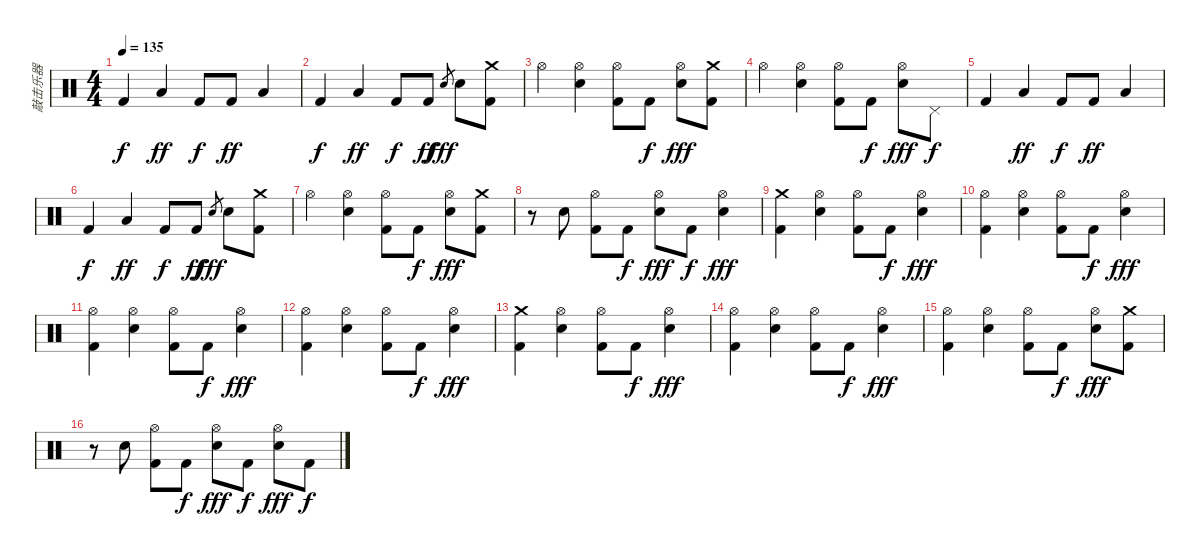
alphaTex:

\track ("敲击乐器" "敲击乐器") {instrument percussion}
\staff {score}
\articulation defaults
\ts (4 4)
\tempo 135
\clef neutral
\ks c "Kick (hit) 2".4{dy f} "Low Tom (hit)".4{dy ff} "Kick (hit) 2".8{dy f} "Kick (hit) 2".8{dy ff} "Low Tom (hit)".4
|
"Kick (hit) 2".4{dy f} "Low Tom (hit)".4{dy ff} "Kick (hit) 2".8{dy f} "Kick (hit) 2".8{dy ff} "Snare (hit) 2".8{gr dy fff} "Electric Snare (hit)".8 ("Crash medium (hit)" "Kick (hit) 2").8 |
"Hi-Hat (open)".4 ("Hi-Hat (open)" "Electric Snare (hit)").4 ("Hi-Hat (open)" "Kick (hit) 2").8 "Kick (hit) 2".8{dy f} ("Hi-Hat (open)" "Electric Snare (hit)").8{dy fff} ("Kick (hit) 2" "Crash medium (hit)").8 |
"Hi-Hat (open)".4 ("Hi-Hat (open)" "Electric Snare (hit)").4 ("Hi-Hat (open)" "Kick (hit) 2").8 "Kick (hit) 2".8{dy f} ("Hi-Hat (open)" "Electric Snare (hit)").8{dy fff} "Pedal Hi-Hat (hit)".8{dy f} |
"Kick (hit) 2".4 "Low Tom (hit)".4{dy ff} "Kick (hit) 2".8{dy f} "Kick (hit) 2".8{dy ff} "Low Tom (hit)".4 |
"Kick (hit) 2".4{dy f} "Low Tom (hit)".4{dy ff} "Kick (hit) 2".8{dy f} "Kick (hit) 2".8{dy ff} "Snare (hit) 2".8{gr dy fff} "Electric Snare (hit)".8 ("Crash medium (hit)" "Kick (hit) 2").8 |
"Hi-Hat (open)".4 ("Hi-Hat (open)" "Electric Snare (hit)").4 ("Hi-Hat (open)" "Kick (hit) 2").8 "Kick (hit) 2".8{dy f} ("Hi-Hat (open)" "Electric Snare (hit)").8{dy fff} ("Kick (hit) 2" "Crash medium (hit)").8 |
r.8 "Electric Snare (hit)".8 ("Hi-Hat (open)" "Kick (hit) 2").8 "Kick (hit) 2".8{dy f} ("Electric Snare (hit)" "Hi-Hat (open)").8{dy fff} "Kick (hit) 2".8{dy f} ("Electric Snare (hit)" "Hi-Hat (open)").4{dy fff} |
("Crash medium (hit)" "Kick (hit) 2").4 ("Hi-Hat (open)" "Electric Snare (hit)").4 ("Hi-Hat (open)" "Kick (hit) 2").8 "Kick (hit) 2".8{dy f} ("Hi-Hat (open)" "Electric Snare (hit)").4{dy fff} |
("Hi-Hat (open)" "Kick (hit) 2").4 ("Hi-Hat (open)" "Electric Snare (hit)").4 ("Hi-Hat (open)" "Kick (hit) 2").8 "Kick (hit) 2".8{dy f} ("Hi-Hat (open)" "Electric Snare (hit)").4{dy fff} |
("Hi-Hat (open)" "Kick (hit) 2").4 ("Hi-Hat (open)" "Electric Snare (hit)").4 ("Hi-Hat (open)" "Kick (hit) 2").8 "Kick (hit) 2".8{dy f} ("Hi-Hat (open)" "Electric Snare (hit)").4{dy fff} |
("Hi-Hat (open)" "Kick (hit) 2").4 ("Hi-Hat (open)" "Electric Snare (hit)").4 ("Hi-Hat (open)" "Kick (hit) 2").8 "Kick (hit) 2".8{dy f} ("Hi-Hat (open)" "Electric Snare (hit)").4{dy fff} |
("Crash medium (hit)" "Kick (hit) 2").4 ("Hi-Hat (open)" "Electric Snare (hit)").4 ("Hi-Hat (open)" "Kick (hit) 2").8 "Kick (hit) 2".8{dy f} ("Hi-Hat (open)" "Electric Snare (hit)").4{dy fff} |
("Hi-Hat (open)" "Kick (hit) 2").4 ("Hi-Hat (open)" "Electric Snare (hit)").4 ("Hi-Hat (open)" "Kick (hit) 2").8 "Kick (hit) 2".8{dy f} ("Hi-Hat (open)" "Electric Snare (hit)").4{dy fff} |
("Hi-Hat (open)" "Kick (hit) 2").4 ("Hi-Hat (open)" "Electric Snare (hit)").4 ("Hi-Hat (open)" "Kick (hit) 2").8 "Kick (hit) 2".8{dy f} ("Hi-Hat (open)" "Electric Snare (hit)").8{dy fff} ("Crash medium (hit)" "Kick (hit) 2").8 |
r.8 "Electric Snare (hit)".8 ("Hi-Hat (open)" "Kick (hit) 2").8 "Kick (hit) 2".8{dy f} ("Electric Snare (hit)" "Hi-Hat (open)").8{dy fff} "Kick (hit) 2".8{dy f} ("Electric Snare (hit)" "Hi-Hat (open)").8{dy fff} "Kick (hit) 2".8{dy f}
